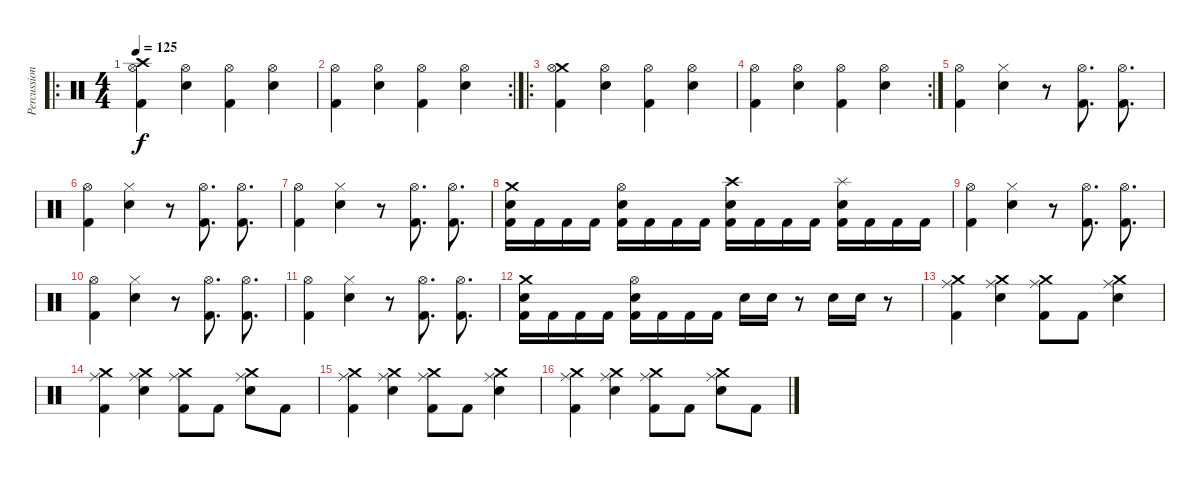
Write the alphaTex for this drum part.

\track ("Percussions" "Percussion") {instrument percussion}
\staff {score}
\articulation defaults
\ro
\ts (4 4)
\tempo 125
\clef neutral
\ks c
("Crash high (hit)" "Hi-Hat (open)" "Kick (hit) 2").4{dy f} ("Hi-Hat (open)" "Electric Snare (hit)").4 ("Hi-Hat (open)" "Kick (hit) 2").4 ("Hi-Hat (open)" "Electric Snare (hit)").4 |
\rc 2
("Hi-Hat (open)" "Kick (hit) 2").4 ("Hi-Hat (open)" "Electric Snare (hit)").4 ("Hi-Hat (open)" "Kick (hit) 2").4 ("Hi-Hat (open)" "Electric Snare (hit)").4 |
\ro
("Crash medium (hit)" "Hi-Hat (open)" "Kick (hit) 2").4 ("Hi-Hat (open)" "Electric Snare (hit)").4 ("Hi-Hat (open)" "Kick (hit) 2").4 ("Hi-Hat (open)" "Electric Snare (hit)").4 |
\rc 2
("Hi-Hat (open)" "Kick (hit) 2").4 ("Hi-Hat (open)" "Electric Snare (hit)").4 ("Hi-Hat (open)" "Kick (hit) 2").4 ("Hi-Hat (open)" "Electric Snare (hit)").4 |
("Hi-Hat (open)" "Kick (hit) 2").4 ("Hi-Hat (closed)" "Electric Snare (hit)").4 r.8 ("Hi-Hat (open)" "Kick (hit) 2").8{d} ("Hi-Hat (open)" "Kick (hit) 2").8{d} |
("Hi-Hat (open)" "Kick (hit) 2").4 ("Hi-Hat (closed)" "Electric Snare (hit)").4 r.8 ("Hi-Hat (open)" "Kick (hit) 2").8{d} ("Hi-Hat (open)" "Kick (hit) 2").8{d} |
("Hi-Hat (open)" "Kick (hit) 2").4 ("Hi-Hat (closed)" "Electric Snare (hit)").4 r.8 ("Hi-Hat (open)" "Kick (hit) 2").8{d} ("Hi-Hat (open)" "Kick (hit) 2").8{d} |
("Crash medium (hit)" "Electric Snare (hit)" "Kick (hit) 2").16 "Kick (hit) 2".16 "Kick (hit) 2".16 "Kick (hit) 2".16 ("Hi-Hat (open)" "Electric Snare (hit)" "Kick (hit) 2").16 "Kick (hit) 2".16 "Kick (hit) 2".16 "Kick (hit) 2".16 ("Crash high (hit)" "Electric Snare (hit)" "Kick (hit) 2").16 "Kick (hit) 2".16 "Kick (hit) 2".16 "Kick (hit) 2".16 ("Splash (hit)" "Electric Snare (hit)" "Kick (hit) 2").16 "Kick (hit) 2".16 "Kick (hit) 2".16 "Kick (hit) 2".16 |
("Hi-Hat (open)" "Kick (hit) 2").4 ("Hi-Hat (closed)" "Electric Snare (hit)").4 r.8 ("Hi-Hat (open)" "Kick (hit) 2").8{d} ("Hi-Hat (open)" "Kick (hit) 2").8{d} |
("Hi-Hat (open)" "Kick (hit) 2").4 ("Hi-Hat (closed)" "Electric Snare (hit)").4 r.8 ("Hi-Hat (open)" "Kick (hit) 2").8{d} ("Hi-Hat (open)" "Kick (hit) 2").8{d} |
("Hi-Hat (open)" "Kick (hit) 2").4 ("Hi-Hat (closed)" "Electric Snare (hit)").4 r.8 ("Hi-Hat (open)" "Kick (hit) 2").8{d} ("Hi-Hat (open)" "Kick (hit) 2").8{d} |
("Crash medium (hit)" "Electric Snare (hit)" "Kick (hit) 2").16 "Kick (hit) 2".16 "Kick (hit) 2".16 "Kick (hit) 2".16 ("Hi-Hat (open)" "Electric Snare (hit)" "Kick (hit) 2").16 "Kick (hit) 2".16 "Kick (hit) 2".16 "Kick (hit) 2".16 "Electric Snare (hit)".16 "Electric Snare (hit)".16 r.8 "Electric Snare (hit)".16 "Electric Snare (hit)".16 r.8 |
("Ride (middle)" "Crash medium (hit)" "Kick (hit) 2").4 ("Ride (middle)" "Crash medium (hit)" "Electric Snare (hit)").4 ("Ride (middle)" "Crash medium (hit)" "Kick (hit) 2").8 "Kick (hit) 2".8 ("Ride (middle)" "Crash medium (hit)" "Electric Snare (hit)").4 |
("Ride (middle)" "Crash medium (hit)" "Kick (hit) 2").4 ("Ride (middle)" "Crash medium (hit)" "Electric Snare (hit)").4 ("Ride (middle)" "Crash medium (hit)" "Kick (hit) 2").8 "Kick (hit) 2".8 ("Ride (middle)" "Crash medium (hit)" "Electric Snare (hit)").8 "Kick (hit) 2".8 |
("Ride (middle)" "Crash medium (hit)" "Kick (hit) 2").4 ("Ride (middle)" "Crash medium (hit)" "Electric Snare (hit)").4 ("Ride (middle)" "Crash medium (hit)" "Kick (hit) 2").8 "Kick (hit) 2".8 ("Ride (middle)" "Crash medium (hit)" "Electric Snare (hit)").4 |
("Ride (middle)" "Crash medium (hit)" "Kick (hit) 2").4 ("Ride (middle)" "Crash medium (hit)" "Electric Snare (hit)").4 ("Ride (middle)" "Crash medium (hit)" "Kick (hit) 2").8 "Kick (hit) 2".8 ("Ride (middle)" "Crash medium (hit)" "Electric Snare (hit)").8 "Kick (hit) 2".8
